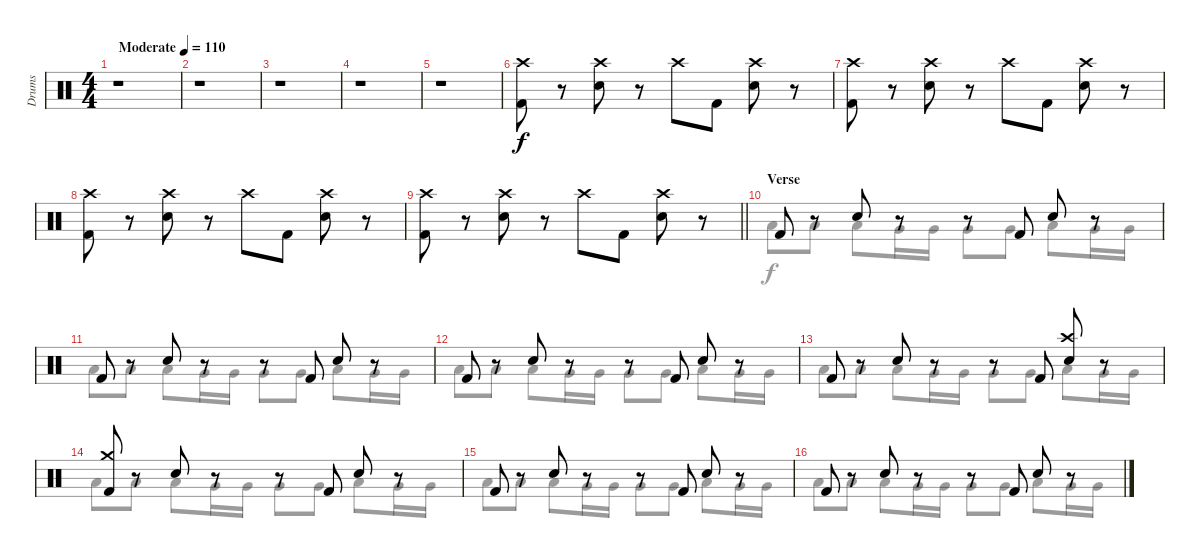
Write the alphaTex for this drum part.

\track ("Drums" "Drums") {instrument percussion}
\staff {score}
\articulation defaults
\voice
\ts (4 4)
\tempo (110 "Moderate")
\clef neutral
\ks c
r.1{dy f} |
r.1 |
r.1 |
r.1 |
r.1 |
("Crash high (hit)" "Kick (hit) 2").8 r.8 ("Crash high (hit)" "Electric Snare (hit)").8 r.8 "Crash high (hit)".8 "Kick (hit) 2".8 ("Crash high (hit)" "Electric Snare (hit)").8 r.8 |
("Crash high (hit)" "Kick (hit) 2").8 r.8 ("Crash high (hit)" "Electric Snare (hit)").8 r.8 "Crash high (hit)".8 "Kick (hit) 2".8 ("Crash high (hit)" "Electric Snare (hit)").8 r.8 |
("Crash high (hit)" "Kick (hit) 2").8 r.8 ("Crash high (hit)" "Electric Snare (hit)").8 r.8 "Crash high (hit)".8 "Kick (hit) 2".8 ("Crash high (hit)" "Electric Snare (hit)").8 r.8 |
\barLineRight lightlight
("Crash high (hit)" "Kick (hit) 2").8 r.8 ("Crash high (hit)" "Electric Snare (hit)").8 r.8 "Crash high (hit)".8 "Kick (hit) 2".8 ("Crash high (hit)" "Electric Snare (hit)").8 r.8 |
\section ("" "Verse")
"Kick (hit) 2".8 r.8 "Electric Snare (hit)".8 r.8 r.8 "Kick (hit) 2".8 "Electric Snare (hit)".8 r.8 |
"Kick (hit) 2".8 r.8 "Electric Snare (hit)".8 r.8 r.8 "Kick (hit) 2".8 "Electric Snare (hit)".8 r.8 |
"Kick (hit) 2".8 r.8 "Electric Snare (hit)".8 r.8 r.8 "Kick (hit) 2".8 "Electric Snare (hit)".8 r.8 |
"Kick (hit) 2".8 r.8 "Electric Snare (hit)".8 r.8 r.8 "Kick (hit) 2".8 ("Crash high (hit)" "Electric Snare (hit)").8 r.8 |
("Crash medium (hit)" "Kick (hit) 2").8 r.8 "Electric Snare (hit)".8 r.8 r.8 "Kick (hit) 2".8 "Electric Snare (hit)".8 r.8 |
"Kick (hit) 2".8 r.8 "Electric Snare (hit)".8 r.8 r.8 "Kick (hit) 2".8 "Electric Snare (hit)".8 r.8 |
"Kick (hit) 2".8 r.8 "Electric Snare (hit)".8 r.8 r.8 "Kick (hit) 2".8 "Electric Snare (hit)".8 r.8
\voice
\clef neutral
\ottava regular
\simile none
\ks c
|
|
|
|
|
|
|
|
\barLineRight lightlight
|
"Low Tom (hit)".8 "Low Tom (hit)".8 "Low Tom (hit)".8 "Very Low Tom (hit)".16 "Very Low Tom (hit)".16 "Very Low Tom (hit)".8 "Very Low Tom (hit)".8 "Low Floor Tom (hit)".8 "Very Low Tom (hit)".16 "Very Low Tom (hit)".16 |
"Low Tom (hit)".8 "Low Tom (hit)".8 "Low Tom (hit)".8 "Very Low Tom (hit)".16 "Very Low Tom (hit)".16 "Very Low Tom (hit)".8 "Very Low Tom (hit)".8 "Low Floor Tom (hit)".8 "Very Low Tom (hit)".16 "Very Low Tom (hit)".16 |
"Low Tom (hit)".8 "Low Tom (hit)".8 "Low Tom (hit)".8 "Very Low Tom (hit)".16 "Very Low Tom (hit)".16 "Very Low Tom (hit)".8 "Very Low Tom (hit)".8 "Low Floor Tom (hit)".8 "Very Low Tom (hit)".16 "Very Low Tom (hit)".16 |
"Low Tom (hit)".8 "Low Tom (hit)".8 "Low Tom (hit)".8 "Very Low Tom (hit)".16 "Very Low Tom (hit)".16 "Very Low Tom (hit)".8 "Very Low Tom (hit)".8 "Low Floor Tom (hit)".8 "Very Low Tom (hit)".16 "Very Low Tom (hit)".16 |
"Low Tom (hit)".8 "Low Tom (hit)".8 "Low Tom (hit)".8 "Very Low Tom (hit)".16 "Very Low Tom (hit)".16 "Very Low Tom (hit)".8 "Very Low Tom (hit)".8 "Low Floor Tom (hit)".8 "Very Low Tom (hit)".16 "Very Low Tom (hit)".16 |
"Low Tom (hit)".8 "Low Tom (hit)".8 "Low Tom (hit)".8 "Very Low Tom (hit)".16 "Very Low Tom (hit)".16 "Very Low Tom (hit)".8 "Very Low Tom (hit)".8 "Low Floor Tom (hit)".8 "Very Low Tom (hit)".16 "Very Low Tom (hit)".16 |
"Low Tom (hit)".8 "Low Tom (hit)".8 "Low Tom (hit)".8 "Very Low Tom (hit)".16 "Very Low Tom (hit)".16 "Very Low Tom (hit)".8 "Very Low Tom (hit)".8 "Low Floor Tom (hit)".8 "Very Low Tom (hit)".16 "Very Low Tom (hit)".16
